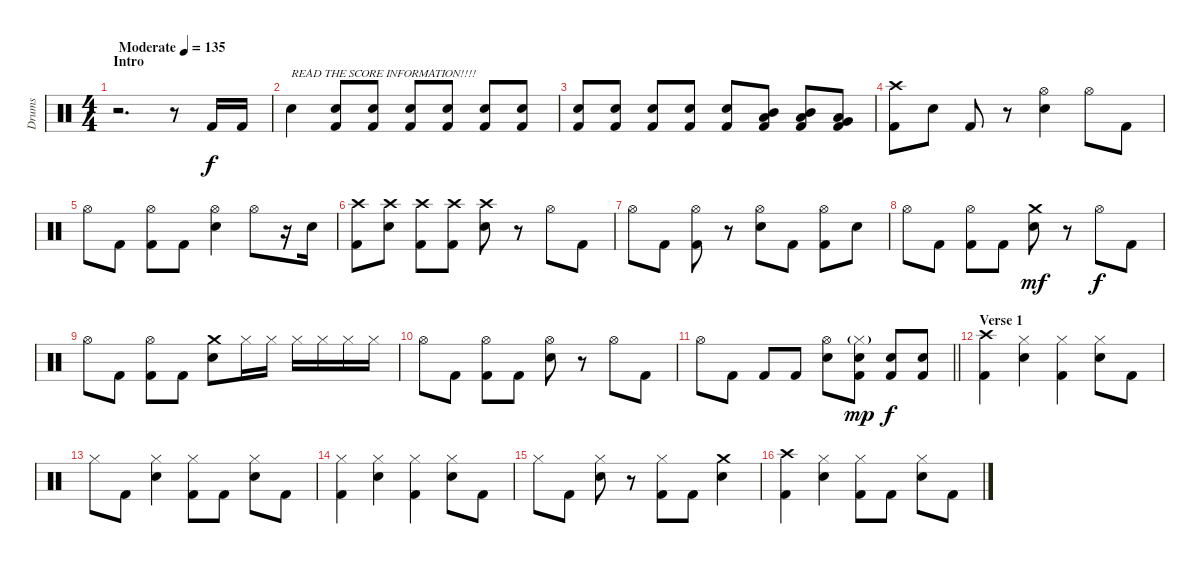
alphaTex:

\track ("Drums" "Drums") {instrument percussion}
\staff {score}
\articulation defaults
\ts (4 4)
\section ("" "Intro")
\tempo (135 "Moderate")
\clef neutral
\ks c
r.2{d dy f} r.8 "Kick (hit) 2".16 "Kick (hit) 2".16 |
"Electric Snare (hit)".4{txt "READ THE SCORE INFORMATION!!!!"} ("Electric Snare (hit)" "Kick (hit) 2").8 ("Electric Snare (hit)" "Kick (hit) 2").8 ("Electric Snare (hit)" "Kick (hit) 2").8 ("Electric Snare (hit)" "Kick (hit) 2").8 ("Electric Snare (hit)" "Kick (hit) 2").8 ("Electric Snare (hit)" "Kick (hit) 2").8 |
("Electric Snare (hit)" "Kick (hit) 2").8 ("Electric Snare (hit)" "Kick (hit) 2").8 ("Electric Snare (hit)" "Kick (hit) 2").8 ("Electric Snare (hit)" "Kick (hit) 2").8 ("Electric Snare (hit)" "Kick (hit) 2").8 ("Mid Tom (hit)" "Low Tom (hit)" "Kick (hit) 2").8 ("Mid Tom (hit)" "Low Tom (hit)" "Kick (hit) 2").8 ("Low Tom (hit)" "Very Low Tom (hit)" "Kick (hit) 2").8 |
("Crash high (hit)" "Kick (hit) 2").8 "Electric Snare (hit)".8 "Kick (hit) 2".8 r.8 ("Hi-Hat (open)" "Electric Snare (hit)").4 "Hi-Hat (open)".8 "Kick (hit) 2".8 |
"Hi-Hat (open)".8 "Kick (hit) 2".8 ("Hi-Hat (open)" "Kick (hit) 2").8 "Kick (hit) 2".8 ("Hi-Hat (open)" "Electric Snare (hit)").4 "Hi-Hat (open)".8 r.16 "Electric Snare (hit)".16 |
("Crash high (hit)" "Kick (hit) 2").8 ("Crash high (hit)" "Electric Snare (hit)").8 ("Crash high (hit)" "Kick (hit) 2").8 ("Crash high (hit)" "Kick (hit) 2").8 ("Crash high (hit)" "Electric Snare (hit)").8 r.8 "Hi-Hat (open)".8 "Kick (hit) 2".8 |
"Hi-Hat (open)".8 "Kick (hit) 2".8 ("Hi-Hat (open)" "Kick (hit) 2").8 r.8 ("Hi-Hat (open)" "Electric Snare (hit)").8 "Kick (hit) 2".8 ("Hi-Hat (open)" "Kick (hit) 2").8 "Electric Snare (hit)".8 |
"Hi-Hat (open)".8 "Kick (hit) 2".8 ("Hi-Hat (open)" "Kick (hit) 2").8 "Kick (hit) 2".8 ("Crash medium (hit)" "Electric Snare (hit)").8{dy mf} r.8 "Hi-Hat (open)".8{dy f} "Kick (hit) 2".8 |
"Hi-Hat (open)".8 "Kick (hit) 2".8 ("Hi-Hat (open)" "Kick (hit) 2").8 "Kick (hit) 2".8 ("Crash medium (hit)" "Electric Snare (hit)").8 "Hi-Hat (closed)".16 "Hi-Hat (closed)".16 "Hi-Hat (closed)".16 "Hi-Hat (closed)".16 "Hi-Hat (closed)".16 "Hi-Hat (closed)".16 |
"Hi-Hat (open)".8 "Kick (hit) 2".8 ("Hi-Hat (open)" "Kick (hit) 2").8 "Kick (hit) 2".8 ("Hi-Hat (open)" "Electric Snare (hit)").8 r.8 "Hi-Hat (open)".8 "Kick (hit) 2".8 |
\barLineRight lightlight "Hi-Hat (open)".8 "Kick (hit) 2".8 "Kick (hit) 2".8 "Kick (hit) 2".8
("Hi-Hat (open)" "Electric Snare (hit)").8 ("Hi-Hat (closed)"{g} "Electric Snare (hit)" "Kick (hit) 2").8{dy mp} ("Electric Snare (hit)" "Kick (hit) 2").8{dy f} ("Electric Snare (hit)" "Kick (hit) 2").8 |
\section ("" "Verse 1")
("Crash high (hit)" "Kick (hit) 2").4 ("Hi-Hat (closed)" "Electric Snare (hit)").4 ("Hi-Hat (closed)" "Kick (hit) 2").4 ("Hi-Hat (closed)" "Electric Snare (hit)").8 "Kick (hit) 2".8 |
"Hi-Hat (closed)".8 "Kick (hit) 2".8 ("Hi-Hat (closed)" "Electric Snare (hit)").4 ("Hi-Hat (closed)" "Kick (hit) 2").8 "Kick (hit) 2".8 ("Hi-Hat (closed)" "Electric Snare (hit)").8 "Kick (hit) 2".8 |
("Hi-Hat (closed)" "Kick (hit) 2").4 ("Hi-Hat (closed)" "Electric Snare (hit)").4 ("Hi-Hat (closed)" "Kick (hit) 2").4 ("Hi-Hat (closed)" "Electric Snare (hit)").8 "Kick (hit) 2".8 |
"Hi-Hat (closed)".8 "Kick (hit) 2".8 ("Hi-Hat (closed)" "Electric Snare (hit)").8 r.8 ("Hi-Hat (closed)" "Kick (hit) 2").8 "Kick (hit) 2".8 ("Crash medium (hit)" "Electric Snare (hit)").4 |
("Crash high (hit)" "Kick (hit) 2").4 ("Hi-Hat (closed)" "Electric Snare (hit)").4 ("Hi-Hat (closed)" "Kick (hit) 2").8 "Kick (hit) 2".8 ("Hi-Hat (closed)" "Electric Snare (hit)").8 "Kick (hit) 2".8
